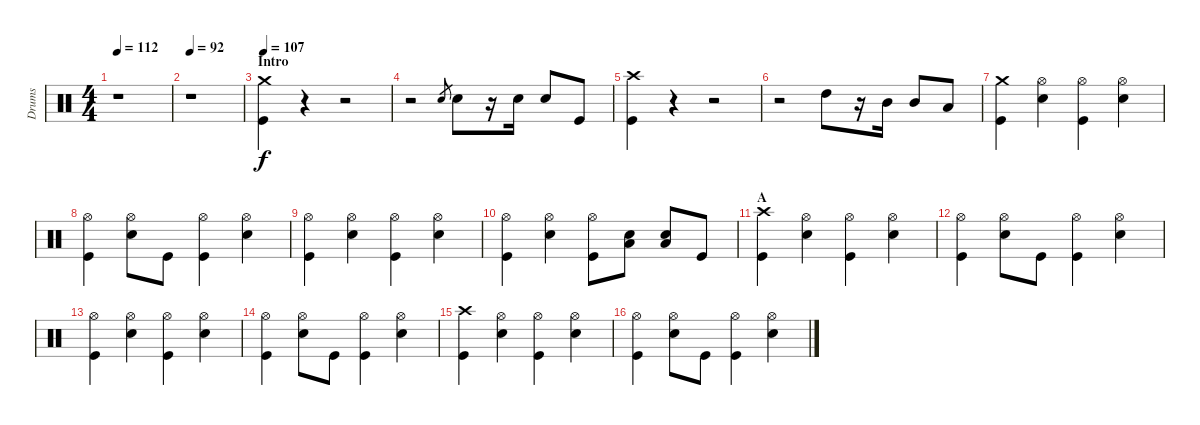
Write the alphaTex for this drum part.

\track ("Drums" "Drums") {instrument percussion}
\staff {score}
\articulation defaults
\ts (4 4)
\tempo 112
\clef neutral
\ks c
r.1{dy f} |
\tempo 92
r.1 |
\section ("" "Intro")
\tempo 107
("Crash medium (hit)" "Kick (hit)").4 r.4 r.2 |
r.2 "Snare (hit) 2".8{gr} "Snare (hit) 2".8 r.16 "Snare (hit) 2".16 "Snare (hit) 2".8 "Kick (hit)".8 |
("Crash high (hit)" "Kick (hit)").4 r.4 r.2 |
r.2 "High Tom (hit)".8 r.16 "Mid Tom (hit)".16 "Mid Tom (hit)".8 "Low Tom (hit)".8 |
("Crash medium (hit)" "Kick (hit)").4 ("Hi-Hat (open)" "Snare (hit) 2").4 ("Hi-Hat (open)" "Kick (hit)").4 ("Hi-Hat (open)" "Snare (hit) 2").4 |
("Hi-Hat (open)" "Kick (hit)").4 ("Hi-Hat (open)" "Snare (hit) 2").8 "Kick (hit)".8 ("Hi-Hat (open)" "Kick (hit)").4 ("Hi-Hat (open)" "Snare (hit) 2").4 |
("Hi-Hat (open)" "Kick (hit)").4 ("Hi-Hat (open)" "Snare (hit) 2").4 ("Hi-Hat (open)" "Kick (hit)").4 ("Hi-Hat (open)" "Snare (hit) 2").4 |
("Hi-Hat (open)" "Kick (hit)").4 ("Hi-Hat (open)" "Snare (hit) 2").4 ("Hi-Hat (open)" "Kick (hit)").8 ("Low Tom (hit)" "Snare (hit) 2").8 ("Low Tom (hit)" "Snare (hit) 2").8 "Kick (hit)".8 |
\section ("" "A")
("Crash high (hit)" "Kick (hit)").4 ("Hi-Hat (open)" "Snare (hit) 2").4 ("Hi-Hat (open)" "Kick (hit)").4 ("Hi-Hat (open)" "Snare (hit) 2").4 |
("Hi-Hat (open)" "Kick (hit)").4 ("Hi-Hat (open)" "Snare (hit) 2").8 "Kick (hit)".8 ("Hi-Hat (open)" "Kick (hit)").4 ("Hi-Hat (open)" "Snare (hit) 2").4 |
("Hi-Hat (open)" "Kick (hit)").4 ("Hi-Hat (open)" "Snare (hit) 2").4 ("Hi-Hat (open)" "Kick (hit)").4 ("Hi-Hat (open)" "Snare (hit) 2").4 |
("Hi-Hat (open)" "Kick (hit)").4 ("Hi-Hat (open)" "Snare (hit) 2").8 "Kick (hit)".8 ("Hi-Hat (open)" "Kick (hit)").4 ("Hi-Hat (open)" "Snare (hit) 2").4 |
("Crash high (hit)" "Kick (hit)").4 ("Hi-Hat (open)" "Snare (hit) 2").4 ("Hi-Hat (open)" "Kick (hit)").4 ("Hi-Hat (open)" "Snare (hit) 2").4 |
("Hi-Hat (open)" "Kick (hit)").4 ("Hi-Hat (open)" "Snare (hit) 2").8 "Kick (hit)".8 ("Hi-Hat (open)" "Kick (hit)").4 ("Hi-Hat (open)" "Snare (hit) 2").4
